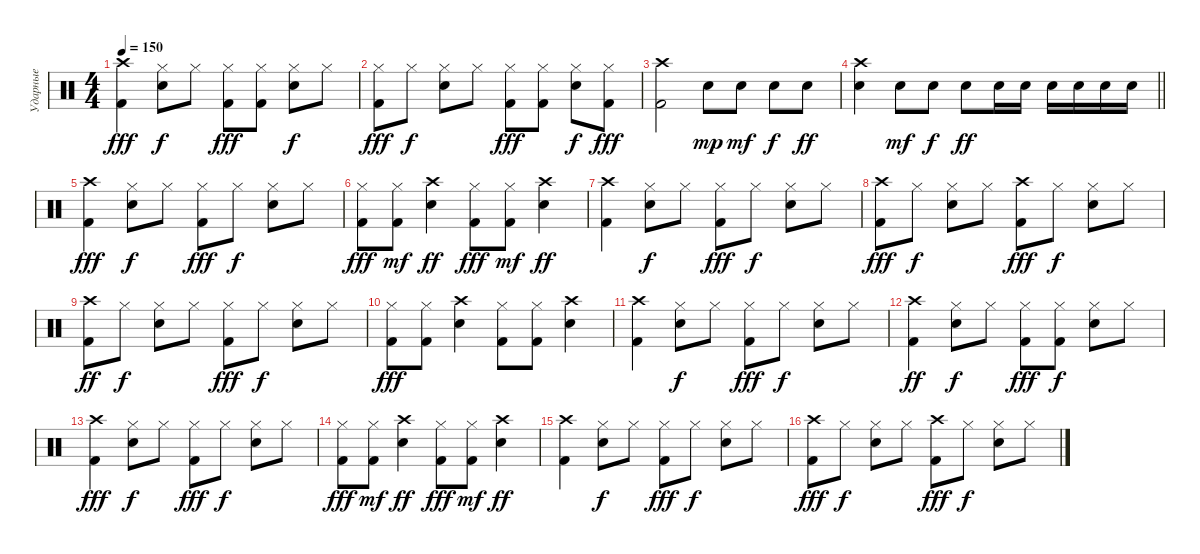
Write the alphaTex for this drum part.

\track ("Ударные" "Ударные") {instrument percussion}
\staff {score}
\articulation defaults
\ts (4 4)
\tempo 150
\clef neutral
\ks c
("Kick (hit) 2" "Crash high (hit)").4{dy fff} ("Snare (hit) 2" "Hi-Hat (closed)").8{dy f} "Hi-Hat (closed)".8 ("Kick (hit) 2" "Hi-Hat (closed)").8{dy fff} ("Kick (hit) 2" "Hi-Hat (closed)").8 ("Snare (hit) 2" "Hi-Hat (closed)").8{dy f} "Hi-Hat (closed)".8 |
("Kick (hit) 2" "Hi-Hat (closed)").8{dy fff} "Hi-Hat (closed)".8{dy f} ("Snare (hit) 2" "Hi-Hat (closed)").8 "Hi-Hat (closed)".8 ("Kick (hit) 2" "Hi-Hat (closed)").8{dy fff} ("Kick (hit) 2" "Hi-Hat (closed)").8 ("Snare (hit) 2" "Hi-Hat (closed)").8{dy f} ("Kick (hit) 2" "Hi-Hat (closed)").8{dy fff} |
("Kick (hit) 2" "Crash high (hit)").2 "Snare (hit) 2".8{dy mp} "Snare (hit) 2".8{dy mf} "Snare (hit) 2".8{dy f} "Snare (hit) 2".8{dy ff} |
\barLineRight lightlight
("Snare (hit) 2" "Crash high (hit)").4 "Snare (hit) 2".8{dy mf} "Snare (hit) 2".8{dy f} "Snare (hit) 2".8{dy ff} "Snare (hit) 2".16 "Snare (hit) 2".16 "Snare (hit) 2".16 "Snare (hit) 2".16 "Snare (hit) 2".16 "Snare (hit) 2".16 |
("Kick (hit) 2" "Crash high (hit)").4{dy fff} ("Snare (hit) 2" "Hi-Hat (closed)").8{dy f} "Hi-Hat (closed)".8 ("Kick (hit) 2" "Hi-Hat (closed)").8{dy fff} "Hi-Hat (closed)".8{dy f} ("Snare (hit) 2" "Hi-Hat (closed)").8 "Hi-Hat (closed)".8 |
("Kick (hit) 2" "Hi-Hat (closed)").8{dy fff} ("Kick (hit) 2" "Hi-Hat (closed)").8{dy mf} ("Snare (hit) 2" "Crash high (hit)").4{dy ff} ("Kick (hit) 2" "Hi-Hat (closed)").8{dy fff} ("Kick (hit) 2" "Hi-Hat (closed)").8{dy mf} ("Snare (hit) 2" "Crash high (hit)").4{dy ff} |
("Kick (hit) 2" "Crash high (hit)").4 ("Snare (hit) 2" "Hi-Hat (closed)").8{dy f} "Hi-Hat (closed)".8 ("Kick (hit) 2" "Hi-Hat (closed)").8{dy fff} "Hi-Hat (closed)".8{dy f} ("Snare (hit) 2" "Hi-Hat (closed)").8 "Hi-Hat (closed)".8 |
("Kick (hit) 2" "Crash high (hit)").8{dy fff} "Hi-Hat (closed)".8{dy f} ("Snare (hit) 2" "Hi-Hat (closed)").8 "Hi-Hat (closed)".8 ("Kick (hit) 2" "Crash high (hit)").8{dy fff} "Hi-Hat (closed)".8{dy f} ("Snare (hit) 2" "Hi-Hat (closed)").8 "Hi-Hat (closed)".8 |
("Kick (hit) 2" "Crash high (hit)").8{dy ff} "Hi-Hat (closed)".8{dy f} ("Snare (hit) 2" "Hi-Hat (closed)").8 "Hi-Hat (closed)".8 ("Kick (hit) 2" "Hi-Hat (closed)").8{dy fff} "Hi-Hat (closed)".8{dy f} ("Snare (hit) 2" "Hi-Hat (closed)").8 "Hi-Hat (closed)".8 |
("Kick (hit) 2" "Hi-Hat (closed)").8{dy fff} ("Kick (hit) 2" "Hi-Hat (closed)").8 ("Snare (hit) 2" "Crash high (hit)").4 ("Kick (hit) 2" "Hi-Hat (closed)").8 ("Kick (hit) 2" "Hi-Hat (closed)").8 ("Snare (hit) 2" "Crash high (hit)").4 |
("Kick (hit) 2" "Crash high (hit)").4 ("Snare (hit) 2" "Hi-Hat (closed)").8{dy f} "Hi-Hat (closed)".8 ("Kick (hit) 2" "Hi-Hat (closed)").8{dy fff} "Hi-Hat (closed)".8{dy f} ("Snare (hit) 2" "Hi-Hat (closed)").8 "Hi-Hat (closed)".8 |
("Kick (hit) 2" "Crash high (hit)").4{dy ff} ("Snare (hit) 2" "Hi-Hat (closed)").8{dy f} "Hi-Hat (closed)".8 ("Kick (hit) 2" "Hi-Hat (closed)").8{dy fff} ("Kick (hit) 2" "Hi-Hat (closed)").8{dy f} ("Snare (hit) 2" "Hi-Hat (closed)").8 "Hi-Hat (closed)".8 |
("Kick (hit) 2" "Crash high (hit)").4{dy fff} ("Snare (hit) 2" "Hi-Hat (closed)").8{dy f} "Hi-Hat (closed)".8 ("Kick (hit) 2" "Hi-Hat (closed)").8{dy fff} "Hi-Hat (closed)".8{dy f} ("Snare (hit) 2" "Hi-Hat (closed)").8 "Hi-Hat (closed)".8 |
("Kick (hit) 2" "Hi-Hat (closed)").8{dy fff} ("Kick (hit) 2" "Hi-Hat (closed)").8{dy mf} ("Snare (hit) 2" "Crash high (hit)").4{dy ff} ("Kick (hit) 2" "Hi-Hat (closed)").8{dy fff} ("Kick (hit) 2" "Hi-Hat (closed)").8{dy mf} ("Snare (hit) 2" "Crash high (hit)").4{dy ff} |
("Kick (hit) 2" "Crash high (hit)").4 ("Snare (hit) 2" "Hi-Hat (closed)").8{dy f} "Hi-Hat (closed)".8 ("Kick (hit) 2" "Hi-Hat (closed)").8{dy fff} "Hi-Hat (closed)".8{dy f} ("Snare (hit) 2" "Hi-Hat (closed)").8 "Hi-Hat (closed)".8 |
("Kick (hit) 2" "Crash high (hit)").8{dy fff} "Hi-Hat (closed)".8{dy f} ("Snare (hit) 2" "Hi-Hat (closed)").8 "Hi-Hat (closed)".8 ("Kick (hit) 2" "Crash high (hit)").8{dy fff} "Hi-Hat (closed)".8{dy f} ("Snare (hit) 2" "Hi-Hat (closed)").8 "Hi-Hat (closed)".8
